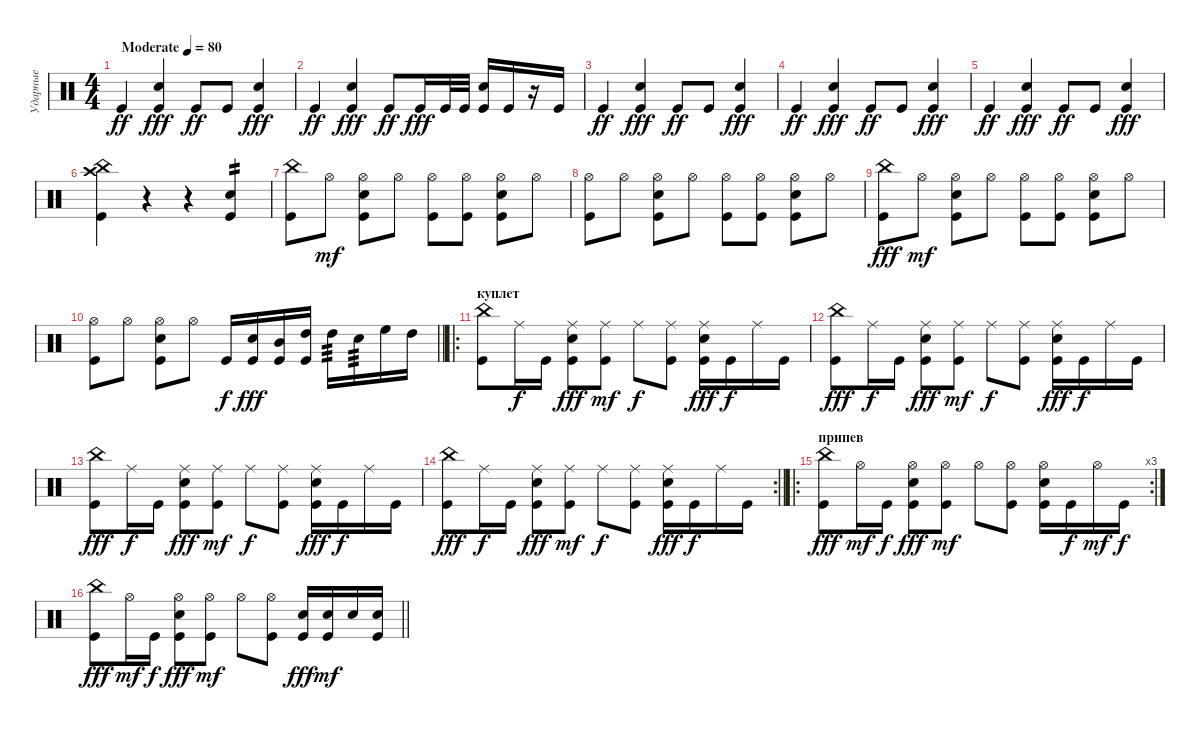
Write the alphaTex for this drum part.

\track ("Ударные" "Ударные") {instrument percussion}
\staff {score}
\articulation defaults
\ts (4 4)
\tempo (80 "Moderate")
\clef neutral
\ks c "Kick (hit)".4{dy ff}
("Snare (hit) 2" "Kick (hit)").4{dy fff} "Kick (hit)".8{dy ff} "Kick (hit)".8 ("Snare (hit) 2" "Kick (hit)").4{dy fff} |
"Kick (hit)".4{dy ff} ("Snare (hit) 2" "Kick (hit)").4{dy fff} "Kick (hit)".8{dy ff} "Kick (hit)".16{dy fff} "Kick (hit)".32 "Kick (hit)".32 ("Kick (hit)" "Snare (hit) 2").16 "Kick (hit)".16 r.16 "Kick (hit)".16 |
"Kick (hit)".4{dy ff} ("Snare (hit) 2" "Kick (hit)").4{dy fff} "Kick (hit)".8{dy ff} "Kick (hit)".8 ("Snare (hit) 2" "Kick (hit)").4{dy fff} |
"Kick (hit)".4{dy ff} ("Snare (hit) 2" "Kick (hit)").4{dy fff} "Kick (hit)".8{dy ff} "Kick (hit)".8 ("Snare (hit) 2" "Kick (hit)").4{dy fff} |
"Kick (hit)".4{dy ff} ("Snare (hit) 2" "Kick (hit)").4{dy fff} "Kick (hit)".8{dy ff} "Kick (hit)".8 ("Snare (hit) 2" "Kick (hit)").4{dy fff} |
("Kick (hit)" "Crash high (hit)" "China (hit)").4 r.4 r.4 ("Kick (hit)" "Snare (hit) 2").4{tp 2} |
("Kick (hit)" "China (hit)").8 "Hi-Hat (open)".8{dy mf} ("Kick (hit)" "Snare (hit) 2" "Hi-Hat (open)").8 "Hi-Hat (open)".8 ("Hi-Hat (open)" "Kick (hit)").8 ("Kick (hit)" "Hi-Hat (open)").8 ("Kick (hit)" "Snare (hit) 2" "Hi-Hat (open)").8 "Hi-Hat (open)".8 |
("Hi-Hat (open)" "Kick (hit)").8 "Hi-Hat (open)".8 ("Kick (hit)" "Snare (hit) 2" "Hi-Hat (open)").8 "Hi-Hat (open)".8 ("Hi-Hat (open)" "Kick (hit)").8 ("Kick (hit)" "Hi-Hat (open)").8 ("Kick (hit)" "Snare (hit) 2" "Hi-Hat (open)").8 "Hi-Hat (open)".8 |
("Kick (hit)" "China (hit)").8{dy fff} "Hi-Hat (open)".8{dy mf} ("Kick (hit)" "Snare (hit) 2" "Hi-Hat (open)").8 "Hi-Hat (open)".8 ("Hi-Hat (open)" "Kick (hit)").8 ("Kick (hit)" "Hi-Hat (open)").8 ("Kick (hit)" "Snare (hit) 2" "Hi-Hat (open)").8 "Hi-Hat (open)".8 |
\barLineRight lightlight
("Hi-Hat (open)" "Kick (hit)").8 "Hi-Hat (open)".8 ("Kick (hit)" "Snare (hit) 2" "Hi-Hat (open)").8 "Hi-Hat (open)".8 "Kick (hit)".16{dy f} ("Kick (hit)" "Snare (hit) 2").16{dy fff} ("Kick (hit)" "Mid Tom (hit)").16 ("High Tom (hit)" "Kick (hit)").16 "High Tom (hit)".16{tp 3} "Snare (hit) 2".16{tp 3} "High Floor Tom (hit)".16 "High Tom (hit)".16 |
\ro
\section ("" "куплет")
("Kick (hit)" "China (hit)").8 "Ride (middle)".16{dy f} "Kick (hit)".16 ("Ride (middle)" "Kick (hit)" "Snare (hit) 2").8{dy fff} ("Ride (middle)" "Kick (hit)").8{dy mf} "Ride (middle)".8{dy f} ("Kick (hit)" "Ride (middle)").8 ("Kick (hit)" "Snare (hit) 2" "Ride (middle)").16{dy fff} "Kick (hit)".16{dy f} "Ride (middle)".16 "Kick (hit)".16 |
("Kick (hit)" "China (hit)").8{dy fff} "Ride (middle)".16{dy f} "Kick (hit)".16 ("Ride (middle)" "Kick (hit)" "Snare (hit) 2").8{dy fff} ("Ride (middle)" "Kick (hit)").8{dy mf} "Ride (middle)".8{dy f} ("Kick (hit)" "Ride (middle)").8 ("Kick (hit)" "Snare (hit) 2" "Ride (middle)").16{dy fff} "Kick (hit)".16{dy f} "Ride (middle)".16 "Kick (hit)".16 |
("Kick (hit)" "China (hit)").8{dy fff} "Ride (middle)".16{dy f} "Kick (hit)".16 ("Ride (middle)" "Kick (hit)" "Snare (hit) 2").8{dy fff} ("Ride (middle)" "Kick (hit)").8{dy mf} "Ride (middle)".8{dy f} ("Kick (hit)" "Ride (middle)").8 ("Kick (hit)" "Snare (hit) 2" "Ride (middle)").16{dy fff} "Kick (hit)".16{dy f} "Ride (middle)".16 "Kick (hit)".16 |
\rc 2
\barLineRight lightlight
("Kick (hit)" "China (hit)").8{dy fff} "Ride (middle)".16{dy f} "Kick (hit)".16 ("Ride (middle)" "Kick (hit)" "Snare (hit) 2").8{dy fff} ("Ride (middle)" "Kick (hit)").8{dy mf} "Ride (middle)".8{dy f} ("Kick (hit)" "Ride (middle)").8 ("Kick (hit)" "Snare (hit) 2" "Ride (middle)").16{dy fff} "Kick (hit)".16{dy f} "Ride (middle)".16 "Kick (hit)".16 |
\ro
\rc 3
\section ("" "припев")
("Kick (hit)" "China (hit)").8{dy fff} "Hi-Hat (open)".16{dy mf} "Kick (hit)".16{dy f} ("Hi-Hat (open)" "Kick (hit)" "Snare (hit) 2").8{dy fff} ("Hi-Hat (open)" "Kick (hit)").8{dy mf} "Hi-Hat (open)".8 ("Kick (hit)" "Hi-Hat (open)").8 ("Kick (hit)" "Snare (hit) 2" "Hi-Hat (open)").16 "Kick (hit)".16{dy f} "Hi-Hat (open)".16{dy mf} "Kick (hit)".16{dy f} |
\barLineRight lightlight
("Kick (hit)" "China (hit)").8{dy fff} "Hi-Hat (open)".16{dy mf} "Kick (hit)".16{dy f} ("Hi-Hat (open)" "Kick (hit)" "Snare (hit) 2").8{dy fff} ("Hi-Hat (open)" "Kick (hit)").8{dy mf} "Hi-Hat (open)".8 ("Kick (hit)" "Hi-Hat (open)").8 ("Kick (hit)" "Snare (hit) 2").16{dy fff} ("Kick (hit)" "Snare (hit) 2").16{dy mf} "Snare (hit) 2".16 ("Kick (hit)" "Snare (hit) 2").16
